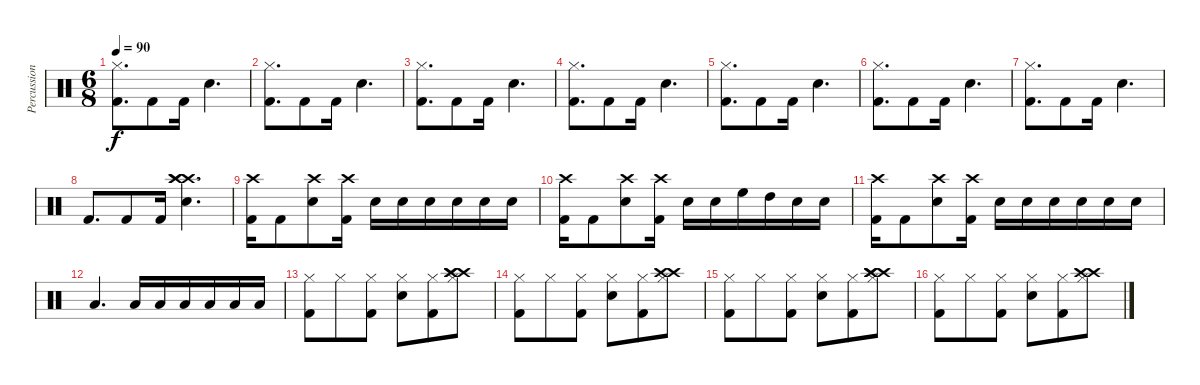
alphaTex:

\track ("Percussion" "Percussion") {instrument percussion}
\staff {score}
\articulation defaults
\ts (6 8)
\tempo 90
\clef neutral
\ks c
("Hi-Hat (closed)" "Kick (hit) 2").8{d dy f} "Kick (hit) 2".8 "Kick (hit) 2".16 "Electric Snare (hit)".4{d} |
("Hi-Hat (closed)" "Kick (hit) 2").8{d} "Kick (hit) 2".8 "Kick (hit) 2".16 "Electric Snare (hit)".4{d} |
("Hi-Hat (closed)" "Kick (hit) 2").8{d} "Kick (hit) 2".8 "Kick (hit) 2".16 "Electric Snare (hit)".4{d} |
("Hi-Hat (closed)" "Kick (hit) 2").8{d} "Kick (hit) 2".8 "Kick (hit) 2".16 "Electric Snare (hit)".4{d} |
("Hi-Hat (closed)" "Kick (hit) 2").8{d} "Kick (hit) 2".8 "Kick (hit) 2".16 "Electric Snare (hit)".4{d} |
("Hi-Hat (closed)" "Kick (hit) 2").8{d} "Kick (hit) 2".8 "Kick (hit) 2".16 "Electric Snare (hit)".4{d} |
("Hi-Hat (closed)" "Kick (hit) 2").8{d} "Kick (hit) 2".8 "Kick (hit) 2".16 "Electric Snare (hit)".4{d} |
"Kick (hit) 2".8{d} "Kick (hit) 2".8 "Kick (hit) 2".16 ("Crash high (hit)" "Electric Snare (hit)" "Crash high (hit)" "Crash high (hit)").4{d} |
("Crash high (hit)" "Kick (hit) 2").16 "Kick (hit) 2".8 ("Crash high (hit)" "Electric Snare (hit)").8 ("Crash high (hit)" "Kick (hit) 2").16 "Electric Snare (hit)".16 "Electric Snare (hit)".16 "Electric Snare (hit)".16 "Electric Snare (hit)".16 "Electric Snare (hit)".16 "Electric Snare (hit)".16 |
("Crash high (hit)" "Kick (hit) 2").16 "Kick (hit) 2".8 ("Crash high (hit)" "Electric Snare (hit)").8 ("Crash high (hit)" "Kick (hit) 2").16 "Electric Snare (hit)".16 "Electric Snare (hit)".16 "High Floor Tom (hit)".16 "High Tom (hit)".16 "Electric Snare (hit)".16 "Electric Snare (hit)".16 |
("Crash high (hit)" "Kick (hit) 2").16 "Kick (hit) 2".8 ("Crash high (hit)" "Electric Snare (hit)").8 ("Crash high (hit)" "Kick (hit) 2").16 "Electric Snare (hit)".16 "Electric Snare (hit)".16 "Electric Snare (hit)".16 "Electric Snare (hit)".16 "Electric Snare (hit)".16 "Electric Snare (hit)".16 |
"Low Floor Tom (hit)".4{d} "Low Floor Tom (hit)".16 "Low Floor Tom (hit)".16 "Low Floor Tom (hit)".16 "Low Floor Tom (hit)".16 "Low Floor Tom (hit)".16 "Low Floor Tom (hit)".16 |
("Hi-Hat (closed)" "Kick (hit) 2").8 "Hi-Hat (closed)".8 ("Hi-Hat (closed)" "Kick (hit) 2").8 ("Hi-Hat (closed)" "Electric Snare (hit)").8 ("Hi-Hat (closed)" "Kick (hit) 2").8 ("Hi-Hat (closed)" "Crash high (hit)" "Crash high (hit)" "Crash high (hit)").8 |
("Hi-Hat (closed)" "Kick (hit) 2").8 "Hi-Hat (closed)".8 ("Hi-Hat (closed)" "Kick (hit) 2").8 ("Hi-Hat (closed)" "Electric Snare (hit)").8 ("Hi-Hat (closed)" "Kick (hit) 2").8 ("Hi-Hat (closed)" "Crash high (hit)" "Crash high (hit)").8 |
("Hi-Hat (closed)" "Kick (hit) 2").8 "Hi-Hat (closed)".8 ("Hi-Hat (closed)" "Kick (hit) 2").8 ("Hi-Hat (closed)" "Electric Snare (hit)").8 ("Hi-Hat (closed)" "Kick (hit) 2").8 ("Hi-Hat (closed)" "Crash high (hit)" "Crash high (hit)" "Crash high (hit)").8 |
("Hi-Hat (closed)" "Kick (hit) 2").8 "Hi-Hat (closed)".8 ("Hi-Hat (closed)" "Kick (hit) 2").8 ("Hi-Hat (closed)" "Electric Snare (hit)").8 ("Hi-Hat (closed)" "Kick (hit) 2").8 ("Hi-Hat (closed)" "Crash high (hit)" "Crash high (hit)").8
